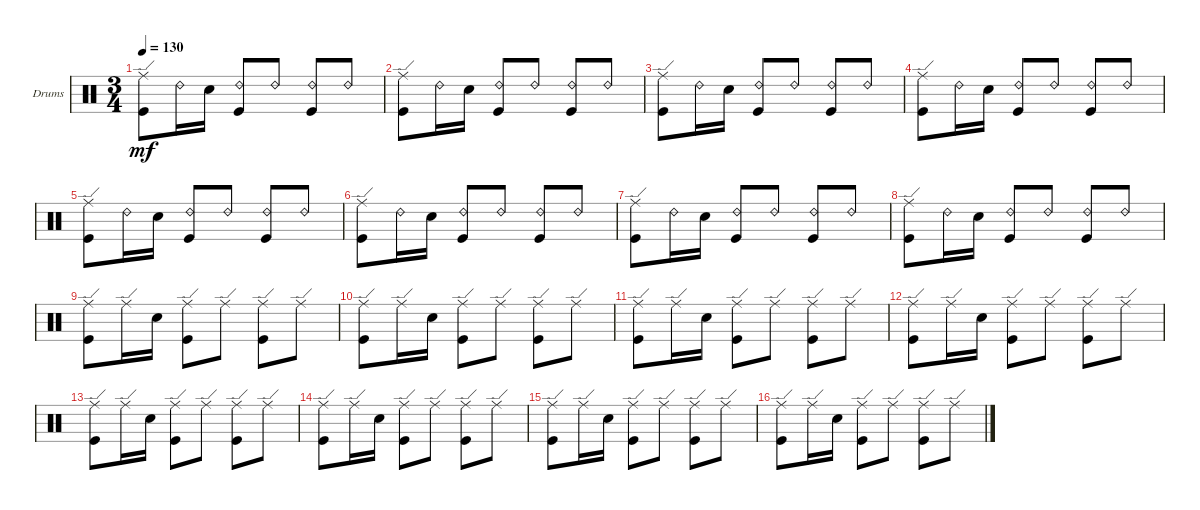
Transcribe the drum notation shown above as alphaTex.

\defaultSystemsLayout 4
\bracketExtendMode groupsimilarinstruments
\firstSystemTrackNameOrientation horizontal
\otherSystemsTrackNameOrientation horizontal
\track ("Drumkit" "Drums") {instrument percussion}
\staff {score}
\articulation defaults
\ts (3 4)
\tempo 130
\clef neutral
\ks c
("Kick (hit)" "Ride (edge)").8{dy mf} "Ride (bell) 2".16 "Snare (hit) 2".16 ("Ride (bell) 2" "Kick (hit)").8 "Ride (bell) 2".8 ("Kick (hit)" "Ride (bell) 2").8 "Ride (bell) 2".8 |
("Kick (hit)" "Ride (edge)").8 "Ride (bell) 2".16 "Snare (hit) 2".16 ("Ride (bell) 2" "Kick (hit)").8 "Ride (bell) 2".8 ("Kick (hit)" "Ride (bell) 2").8 "Ride (bell) 2".8 |
("Kick (hit)" "Ride (edge)").8 "Ride (bell) 2".16 "Snare (hit) 2".16 ("Ride (bell) 2" "Kick (hit)").8 "Ride (bell) 2".8 ("Kick (hit)" "Ride (bell) 2").8 "Ride (bell) 2".8 |
("Kick (hit)" "Ride (edge)").8 "Ride (bell) 2".16 "Snare (hit) 2".16 ("Ride (bell) 2" "Kick (hit)").8 "Ride (bell) 2".8 ("Kick (hit)" "Ride (bell) 2").8 "Ride (bell) 2".8 |
("Kick (hit)" "Ride (edge)").8 "Ride (bell) 2".16 "Snare (hit) 2".16 ("Ride (bell) 2" "Kick (hit)").8 "Ride (bell) 2".8 ("Kick (hit)" "Ride (bell) 2").8 "Ride (bell) 2".8 |
("Kick (hit)" "Ride (edge)").8 "Ride (bell) 2".16 "Snare (hit) 2".16 ("Ride (bell) 2" "Kick (hit)").8 "Ride (bell) 2".8 ("Kick (hit)" "Ride (bell) 2").8 "Ride (bell) 2".8 |
("Kick (hit)" "Ride (edge)").8 "Ride (bell) 2".16 "Snare (hit) 2".16 ("Ride (bell) 2" "Kick (hit)").8 "Ride (bell) 2".8 ("Kick (hit)" "Ride (bell) 2").8 "Ride (bell) 2".8 |
("Kick (hit)" "Ride (edge)").8 "Ride (bell) 2".16 "Snare (hit) 2".16 ("Ride (bell) 2" "Kick (hit)").8 "Ride (bell) 2".8 ("Kick (hit)" "Ride (bell) 2").8 "Ride (bell) 2".8 |
("Kick (hit)" "Ride (edge)").8 "Ride (edge)".16 "Snare (hit) 2".16 ("Ride (edge)" "Kick (hit)").8 "Ride (edge)".8 ("Kick (hit)" "Ride (edge)").8 "Ride (edge)".8 |
("Kick (hit)" "Ride (edge)").8 "Ride (edge)".16 "Snare (hit) 2".16 ("Ride (edge)" "Kick (hit)").8 "Ride (edge)".8 ("Kick (hit)" "Ride (edge)").8 "Ride (edge)".8 |
("Kick (hit)" "Ride (edge)").8 "Ride (edge)".16 "Snare (hit) 2".16 ("Ride (edge)" "Kick (hit)").8 "Ride (edge)".8 ("Kick (hit)" "Ride (edge)").8 "Ride (edge)".8 |
("Kick (hit)" "Ride (edge)").8 "Ride (edge)".16 "Snare (hit) 2".16 ("Ride (edge)" "Kick (hit)").8 "Ride (edge)".8 ("Kick (hit)" "Ride (edge)").8 "Ride (edge)".8 |
("Kick (hit)" "Ride (edge)").8 "Ride (edge)".16 "Snare (hit) 2".16 ("Ride (edge)" "Kick (hit)").8 "Ride (edge)".8 ("Kick (hit)" "Ride (edge)").8 "Ride (edge)".8 |
("Kick (hit)" "Ride (edge)").8 "Ride (edge)".16 "Snare (hit) 2".16 ("Ride (edge)" "Kick (hit)").8 "Ride (edge)".8 ("Kick (hit)" "Ride (edge)").8 "Ride (edge)".8 |
("Kick (hit)" "Ride (edge)").8 "Ride (edge)".16 "Snare (hit) 2".16 ("Ride (edge)" "Kick (hit)").8 "Ride (edge)".8 ("Kick (hit)" "Ride (edge)").8 "Ride (edge)".8 |
("Kick (hit)" "Ride (edge)").8 "Ride (edge)".16 "Snare (hit) 2".16 ("Ride (edge)" "Kick (hit)").8 "Ride (edge)".8 ("Kick (hit)" "Ride (edge)").8 "Ride (edge)".8
